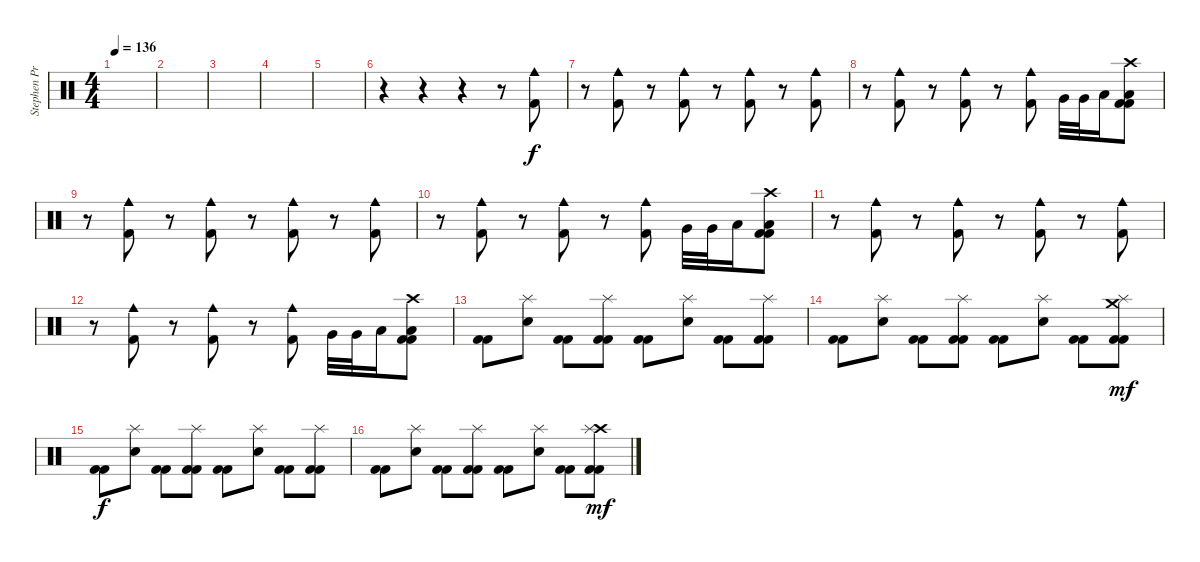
\track ("Stephen Priestly  (Drums)" "Stephen Pr") {instrument percussion}
\staff {score}
\articulation defaults
\ts (4 4)
\tempo 136
\clef neutral
\ks c
|
|
|
|
|
r.4 r.4 r.4 r.8 ("Cowbell medium (hit)" "Kick (hit) 2").8 |
r.8 ("Cowbell medium (hit)" "Kick (hit) 2").8 r.8 ("Cowbell medium (hit)" "Kick (hit) 2").8 r.8 ("Cowbell medium (hit)" "Kick (hit) 2").8 r.8 ("Cowbell medium (hit)" "Kick (hit) 2").8 |
r.8 ("Cowbell medium (hit)" "Kick (hit) 2").8 r.8 ("Cowbell medium (hit)" "Kick (hit) 2").8 r.8 ("Cowbell medium (hit)" "Kick (hit) 2").8 "Very Low Tom (hit)".32 "Very Low Tom (hit)".32 "Low Floor Tom (hit)".16 ("Kick (hit) 2" "Low Floor Tom (hit)" "Crash high (hit)" "Kick (hit) 2").8 |
r.8 ("Cowbell medium (hit)" "Kick (hit) 2").8 r.8 ("Cowbell medium (hit)" "Kick (hit) 2").8 r.8 ("Cowbell medium (hit)" "Kick (hit) 2").8 r.8 ("Cowbell medium (hit)" "Kick (hit) 2").8 |
r.8 ("Cowbell medium (hit)" "Kick (hit) 2").8 r.8 ("Cowbell medium (hit)" "Kick (hit) 2").8 r.8 ("Cowbell medium (hit)" "Kick (hit) 2").8 "Very Low Tom (hit)".32 "Very Low Tom (hit)".32 "Low Floor Tom (hit)".16 ("Kick (hit) 2" "Low Floor Tom (hit)" "Crash high (hit)" "Kick (hit) 2").8 |
r.8 ("Cowbell medium (hit)" "Kick (hit) 2").8 r.8 ("Cowbell medium (hit)" "Kick (hit) 2").8 r.8 ("Cowbell medium (hit)" "Kick (hit) 2").8 r.8 ("Cowbell medium (hit)" "Kick (hit) 2").8 |
r.8 ("Cowbell medium (hit)" "Kick (hit) 2").8 r.8 ("Cowbell medium (hit)" "Kick (hit) 2").8 r.8 ("Cowbell medium (hit)" "Kick (hit) 2").8 "Very Low Tom (hit)".32 "Very Low Tom (hit)".32 "Low Floor Tom (hit)".16 ("Kick (hit) 2" "Low Floor Tom (hit)" "Crash high (hit)" "Kick (hit) 2").8 |
("Kick (hit) 2" "Kick (hit) 2").8 ("Electric Snare (hit)" "Splash (hit)").8 ("Kick (hit) 2" "Kick (hit) 2").8 ("Splash (hit)" "Kick (hit) 2" "Kick (hit) 2").8 ("Kick (hit) 2" "Kick (hit) 2").8 ("Electric Snare (hit)" "Splash (hit)").8 ("Kick (hit) 2" "Kick (hit) 2").8 ("Splash (hit)" "Kick (hit) 2" "Kick (hit) 2").8 |
("Kick (hit) 2" "Kick (hit) 2").8 ("Electric Snare (hit)" "Splash (hit)").8 ("Kick (hit) 2" "Kick (hit) 2").8 ("Splash (hit)" "Kick (hit) 2" "Kick (hit) 2").8 ("Kick (hit) 2" "Kick (hit) 2").8 ("Electric Snare (hit)" "Splash (hit)").8 ("Kick (hit) 2" "Kick (hit) 2").8 ("Crash medium (hit)" "Splash (hit)" "Kick (hit) 2" "Kick (hit) 2").8{dy mf} |
("Kick (hit) 2" "Kick (hit) 2").8{dy f} ("Electric Snare (hit)" "Splash (hit)").8 ("Kick (hit) 2" "Kick (hit) 2").8 ("Splash (hit)" "Kick (hit) 2" "Kick (hit) 2").8 ("Kick (hit) 2" "Kick (hit) 2").8 ("Electric Snare (hit)" "Splash (hit)").8 ("Kick (hit) 2" "Kick (hit) 2").8 ("Splash (hit)" "Kick (hit) 2" "Kick (hit) 2").8 |
("Kick (hit) 2" "Kick (hit) 2").8 ("Electric Snare (hit)" "Splash (hit)").8 ("Kick (hit) 2" "Kick (hit) 2").8 ("Splash (hit)" "Kick (hit) 2" "Kick (hit) 2").8 ("Kick (hit) 2" "Kick (hit) 2").8 ("Electric Snare (hit)" "Splash (hit)").8 ("Kick (hit) 2" "Kick (hit) 2").8 ("Crash high (hit)" "Splash (hit)" "Kick (hit) 2" "Kick (hit) 2").8{dy mf}
